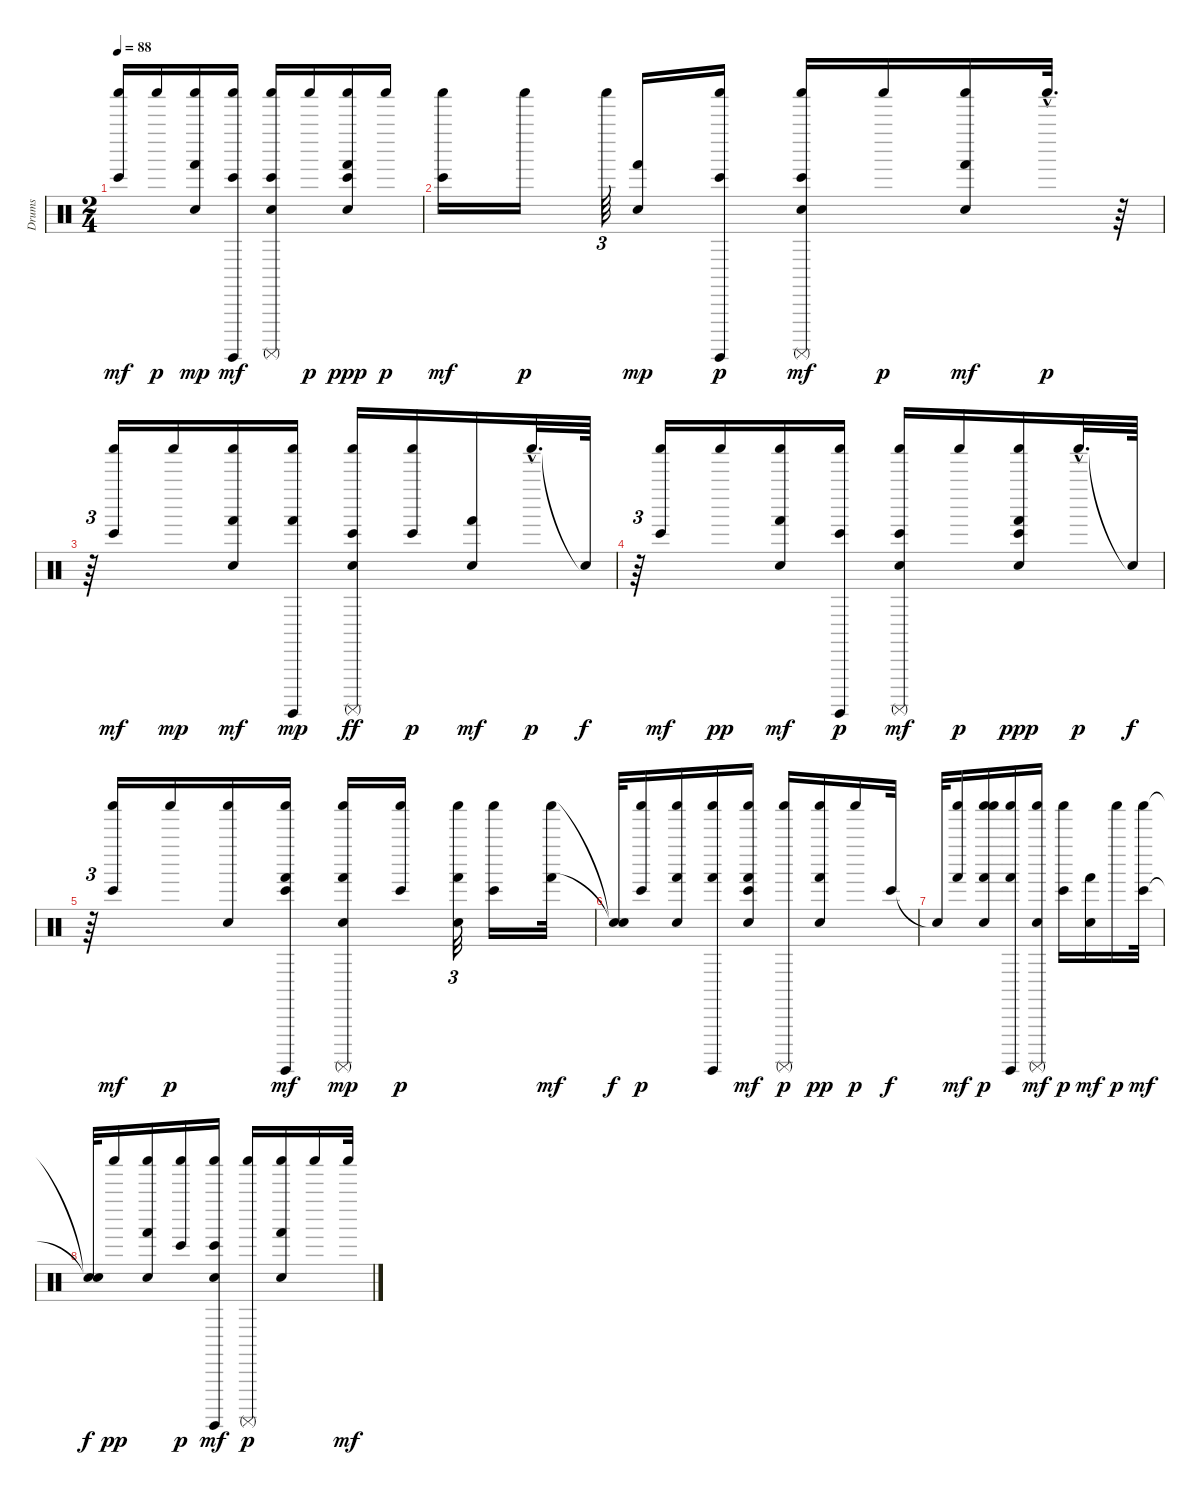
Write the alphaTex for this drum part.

\track ("Drums" "Drums") {instrument percussion}
\staff {score}
\articulation defaults
\ts (2 4)
\tempo 88
\clef neutral
\ks c
("Shaker (hit)" "Bongo High (hit)").16{dy mf} "Shaker (hit)".16{dy p} ("Hand Clap (hit)" "Shaker (hit)" "Hand (hit)").16{dy mp} ("Shaker (hit)" "Bongo High (hit)" "Surdo (hit)").16{dy mf} ("Shaker (hit)" "Hand Clap (hit)" "Surdo (mute)" "Bongo High (hit)").16 "Shaker (hit)".16{dy p} ("Shaker (hit)" "Hand Clap (hit)" "Hand (hit)" "Bongo High (hit)").16{dy ppp} "Shaker (hit)".16{dy p} |
("Shaker (hit)" "Bongo High (hit)").16{dy mf} "Shaker (hit)".16{dy p} "Shaker (hit)".64{tu (3 2)} ("Hand Clap (hit)" "Hand (hit)").16{dy mp} ("Bongo High (hit)" "Shaker (hit)" "Surdo (hit)").16{dy p} ("Shaker (hit)" "Hand Clap (hit)" "Bongo High (hit)" "Surdo (mute)").16{dy mf} "Shaker (hit)".16{dy p} ("Shaker (hit)" "Hand (hit)" "Hand Clap (hit)").16{dy mf} "Shaker (hit)"{hac}.32{d dy p} r.64 |
r.64{tu (3 2)} ("Bongo High (hit)" "Shaker (hit)").16{dy mf} "Shaker (hit)".16{dy mp} ("Shaker (hit)" "Hand Clap (hit)" "Hand (hit)").16{dy mf} ("Shaker (hit)" "Surdo (hit)" "Hand (hit)").16{dy mp} ("Shaker (hit)" "Hand Clap (hit)" "Bongo High (hit)" "Surdo (mute)").16{dy ff} ("Shaker (hit)" "Bongo High (hit)").16{dy p} ("Hand Clap (hit)" "Hand (hit)").16{dy mf} "Shaker (hit)"{hac}.32{d dy p} "Snare (hit)"{t}.64{dy f} |
r.64{tu (3 2)} ("Shaker (hit)" "Bongo High (hit)").16{dy mf} "Shaker (hit)".16{dy pp} ("Shaker (hit)" "Hand Clap (hit)" "Hand (hit)").16{dy mf} ("Surdo (hit)" "Bongo High (hit)" "Shaker (hit)").16{dy p} ("Shaker (hit)" "Hand Clap (hit)" "Bongo High (hit)" "Surdo (mute)").16{dy mf} "Shaker (hit)".16{dy p} ("Shaker (hit)" "Hand Clap (hit)" "Hand (hit)" "Bongo High (hit)").16{dy ppp} "Shaker (hit)"{hac}.32{d dy p} "Snare (hit)"{t}.64{dy f} |
r.64{tu (3 2)} ("Shaker (hit)" "Bongo High (hit)").16{dy mf} "Shaker (hit)".16{dy p} ("Hand Clap (hit)" "Shaker (hit)").16 ("Shaker (hit)" "Surdo (hit)" "Hand (hit)" "Bongo High (hit)").16{dy mf} ("Hand Clap (hit)" "Shaker (hit)" "Hand (hit)" "Surdo (mute)").16{dy mp} ("Shaker (hit)" "Bongo High (hit)").16{dy p} ("Shaker (hit)" "Hand Clap (hit)" "Hand (hit)").32{tu (3 2)} ("Bongo High (hit)" "Shaker (hit)").16 ("Hand (hit)" "Shaker (hit)").32{dy mf} |
("Snare (hit)"{t} "Snare (hit)"{t}).32{dy f} ("Bongo High (hit)" "Shaker (hit)").16{dy p} ("Hand (hit)" "Shaker (hit)" "Hand Clap (hit)").16 ("Hand (hit)" "Shaker (hit)" "Surdo (hit)").16 ("Hand (hit)" "Hand Clap (hit)" "Shaker (hit)" "Bongo High (hit)").16{dy mf} ("Surdo (mute)" "Shaker (hit)").16{dy p} ("Hand (hit)" "Hand Clap (hit)" "Shaker (hit)").16{dy pp} "Shaker (hit)".16{dy p} "Bongo High (hit)".32{dy f} |
"Snare (hit)"{t}.32 ("Hand (hit)" "Shaker (hit)").16{dy mf} ("Shaker (hit)" "Hand (hit)" "Hand Clap (hit)" "Shaker (hit)").16{dy p} ("Shaker (hit)" "Surdo (hit)" "Hand (hit)").16 ("Hand Clap (hit)" "Shaker (hit)" "Surdo (mute)").16{dy mf} ("Bongo High (hit)" "Shaker (hit)").16{dy p} ("Hand Clap (hit)" "Hand (hit)").16{dy mf} "Shaker (hit)".16{dy p} ("Bongo High (hit)" "Shaker (hit)").32{dy mf} |
("Snare (hit)"{t} "Snare (hit)"{t}).32{dy f} "Shaker (hit)".16{dy pp} ("Shaker (hit)" "Hand Clap (hit)" "Hand (hit)").16 ("Bongo High (hit)" "Shaker (hit)").16{dy p} ("Surdo (hit)" "Hand Clap (hit)" "Bongo High (hit)" "Shaker (hit)").16{dy mf} ("Surdo (mute)" "Shaker (hit)").16{dy p} ("Hand Clap (hit)" "Hand (hit)" "Shaker (hit)").16 "Shaker (hit)".16 "Shaker (hit)".32{dy mf}
